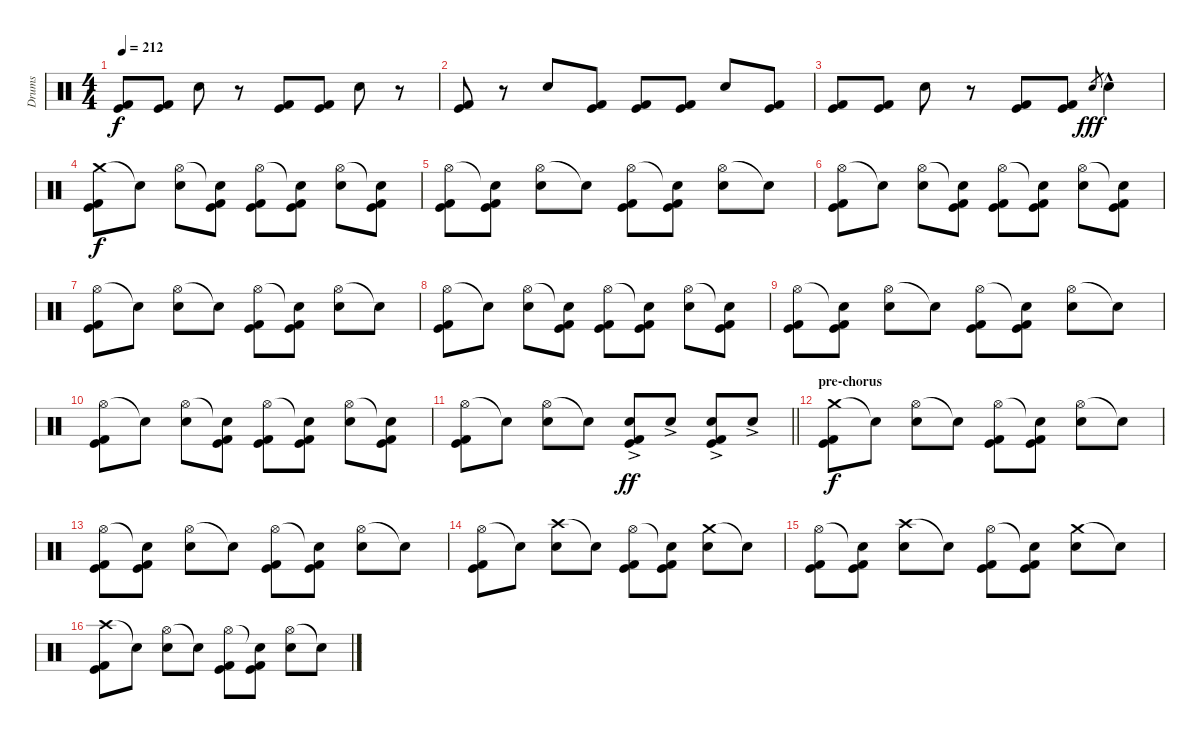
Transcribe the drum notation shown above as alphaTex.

\track ("Drums" "Drums") {instrument percussion}
\staff {score}
\articulation defaults
\ts (4 4)
\tempo 212
\clef neutral
\ks c
("Kick (hit)" "Kick (hit) 2").8{dy f} ("Kick (hit)" "Kick (hit) 2").8 "Snare (hit) 2".8 r.8 ("Kick (hit)" "Kick (hit) 2").8 ("Kick (hit)" "Kick (hit) 2").8 "Snare (hit) 2".8 r.8 |
("Kick (hit)" "Kick (hit) 2").8 r.8 "Snare (hit) 2".8 ("Kick (hit)" "Kick (hit) 2").8 ("Kick (hit)" "Kick (hit) 2").8 ("Kick (hit)" "Kick (hit) 2").8 "Snare (hit) 2".8 ("Kick (hit)" "Kick (hit) 2").8 |
("Kick (hit)" "Kick (hit) 2").8 ("Kick (hit)" "Kick (hit) 2").8 "Snare (hit) 2".8 r.8 ("Kick (hit)" "Kick (hit) 2").8 ("Kick (hit)" "Kick (hit) 2").8 "Snare (hit) 2".8{gr dy fff} "Snare (hit) 2"{hac}.4 |
("Crash medium (hit)" "Kick (hit)" "Kick (hit) 2").8{dy f} "Snare (hit)"{t}.8 ("Hi-Hat (open)" "Snare (hit) 2").8 ("Snare (hit)"{t} "Kick (hit)" "Kick (hit) 2").8 ("Hi-Hat (open)" "Kick (hit)" "Kick (hit) 2").8 ("Snare (hit)"{t} "Kick (hit)" "Kick (hit) 2").8 ("Hi-Hat (open)" "Snare (hit) 2").8 ("Snare (hit)"{t} "Kick (hit)" "Kick (hit) 2").8 |
("Hi-Hat (open)" "Kick (hit)" "Kick (hit) 2").8 ("Snare (hit)"{t} "Kick (hit)" "Kick (hit) 2").8 ("Hi-Hat (open)" "Snare (hit) 2").8 "Snare (hit)"{t}.8 ("Hi-Hat (open)" "Kick (hit)" "Kick (hit) 2").8 ("Snare (hit)"{t} "Kick (hit)" "Kick (hit) 2").8 ("Hi-Hat (open)" "Snare (hit) 2").8 "Snare (hit)"{t}.8 |
("Hi-Hat (open)" "Kick (hit)" "Kick (hit) 2").8 "Snare (hit)"{t}.8 ("Hi-Hat (open)" "Snare (hit) 2").8 ("Snare (hit)"{t} "Kick (hit)" "Kick (hit) 2").8 ("Hi-Hat (open)" "Kick (hit)" "Kick (hit) 2").8 ("Snare (hit)"{t} "Kick (hit)" "Kick (hit) 2").8 ("Hi-Hat (open)" "Snare (hit) 2").8 ("Snare (hit)"{t} "Kick (hit)" "Kick (hit) 2").8 |
("Hi-Hat (open)" "Kick (hit)" "Kick (hit) 2").8 "Snare (hit)"{t}.8 ("Hi-Hat (open)" "Snare (hit) 2").8 "Snare (hit)"{t}.8 ("Hi-Hat (open)" "Kick (hit)" "Kick (hit) 2").8 ("Snare (hit)"{t} "Kick (hit)" "Kick (hit) 2").8 ("Hi-Hat (open)" "Snare (hit) 2").8 "Snare (hit)"{t}.8 |
("Hi-Hat (open)" "Kick (hit)" "Kick (hit) 2").8 "Snare (hit)"{t}.8 ("Hi-Hat (open)" "Snare (hit) 2").8 ("Snare (hit)"{t} "Kick (hit)" "Kick (hit) 2").8 ("Hi-Hat (open)" "Kick (hit)" "Kick (hit) 2").8 ("Snare (hit)"{t} "Kick (hit)" "Kick (hit) 2").8 ("Hi-Hat (open)" "Snare (hit) 2").8 ("Snare (hit)"{t} "Kick (hit)" "Kick (hit) 2").8 |
("Hi-Hat (open)" "Kick (hit)" "Kick (hit) 2").8 ("Snare (hit)"{t} "Kick (hit)" "Kick (hit) 2").8 ("Hi-Hat (open)" "Snare (hit) 2").8 "Snare (hit)"{t}.8 ("Hi-Hat (open)" "Kick (hit)" "Kick (hit) 2").8 ("Snare (hit)"{t} "Kick (hit)" "Kick (hit) 2").8 ("Hi-Hat (open)" "Snare (hit) 2").8 "Snare (hit)"{t}.8 |
("Hi-Hat (open)" "Kick (hit)" "Kick (hit) 2").8 "Snare (hit)"{t}.8 ("Hi-Hat (open)" "Snare (hit) 2").8 ("Snare (hit)"{t} "Kick (hit)" "Kick (hit) 2").8 ("Hi-Hat (open)" "Kick (hit)" "Kick (hit) 2").8 ("Snare (hit)"{t} "Kick (hit)" "Kick (hit) 2").8 ("Hi-Hat (open)" "Snare (hit) 2").8 ("Snare (hit)"{t} "Kick (hit)" "Kick (hit) 2").8 |
\barLineRight lightlight
("Hi-Hat (open)" "Kick (hit)" "Kick (hit) 2").8 "Snare (hit)"{t}.8 ("Hi-Hat (open)" "Snare (hit) 2").8 "Snare (hit)"{t}.8 ("Snare (hit) 2"{ac} "Kick (hit)" "Kick (hit) 2").8{dy ff} "Snare (hit) 2"{ac}.8 ("Snare (hit) 2"{ac} "Kick (hit)" "Kick (hit) 2").8 "Snare (hit) 2"{ac}.8 |
\section ("" "pre-chorus")
("Crash medium (hit)" "Kick (hit)" "Kick (hit) 2").8{dy f} "Snare (hit)"{t}.8 ("Hi-Hat (open)" "Snare (hit) 2").8 "Snare (hit)"{t}.8 ("Hi-Hat (open)" "Kick (hit)" "Kick (hit) 2").8 ("Snare (hit)"{t} "Kick (hit)" "Kick (hit) 2").8 ("Hi-Hat (open)" "Snare (hit) 2").8 "Snare (hit)"{t}.8 |
("Hi-Hat (open)" "Kick (hit)" "Kick (hit) 2").8 ("Snare (hit)"{t} "Kick (hit)" "Kick (hit) 2").8 ("Hi-Hat (open)" "Snare (hit) 2").8 "Snare (hit)"{t}.8 ("Hi-Hat (open)" "Kick (hit)" "Kick (hit) 2").8 ("Snare (hit)"{t} "Kick (hit)" "Kick (hit) 2").8 ("Hi-Hat (open)" "Snare (hit) 2").8 "Snare (hit)"{t}.8 |
("Hi-Hat (open)" "Kick (hit)" "Kick (hit) 2").8 "Snare (hit)"{t}.8 ("Crash high (hit)" "Snare (hit) 2").8 "Snare (hit)"{t}.8 ("Hi-Hat (open)" "Kick (hit)" "Kick (hit) 2").8 ("Snare (hit)"{t} "Kick (hit)" "Kick (hit) 2").8 ("Crash medium (hit)" "Snare (hit) 2").8 "Snare (hit)"{t}.8 |
("Hi-Hat (open)" "Kick (hit)" "Kick (hit) 2").8 ("Snare (hit)"{t} "Kick (hit)" "Kick (hit) 2").8 ("Crash high (hit)" "Snare (hit) 2").8 "Snare (hit)"{t}.8 ("Hi-Hat (open)" "Kick (hit)" "Kick (hit) 2").8 ("Snare (hit)"{t} "Kick (hit)" "Kick (hit) 2").8 ("Crash medium (hit)" "Snare (hit) 2").8 "Snare (hit)"{t}.8 |
("Crash high (hit)" "Kick (hit)" "Kick (hit) 2").8 "Snare (hit)"{t}.8 ("Hi-Hat (open)" "Snare (hit) 2").8 "Snare (hit)"{t}.8 ("Hi-Hat (open)" "Kick (hit)" "Kick (hit) 2").8 ("Snare (hit)"{t} "Kick (hit)" "Kick (hit) 2").8 ("Hi-Hat (open)" "Snare (hit) 2").8 "Snare (hit)"{t}.8
